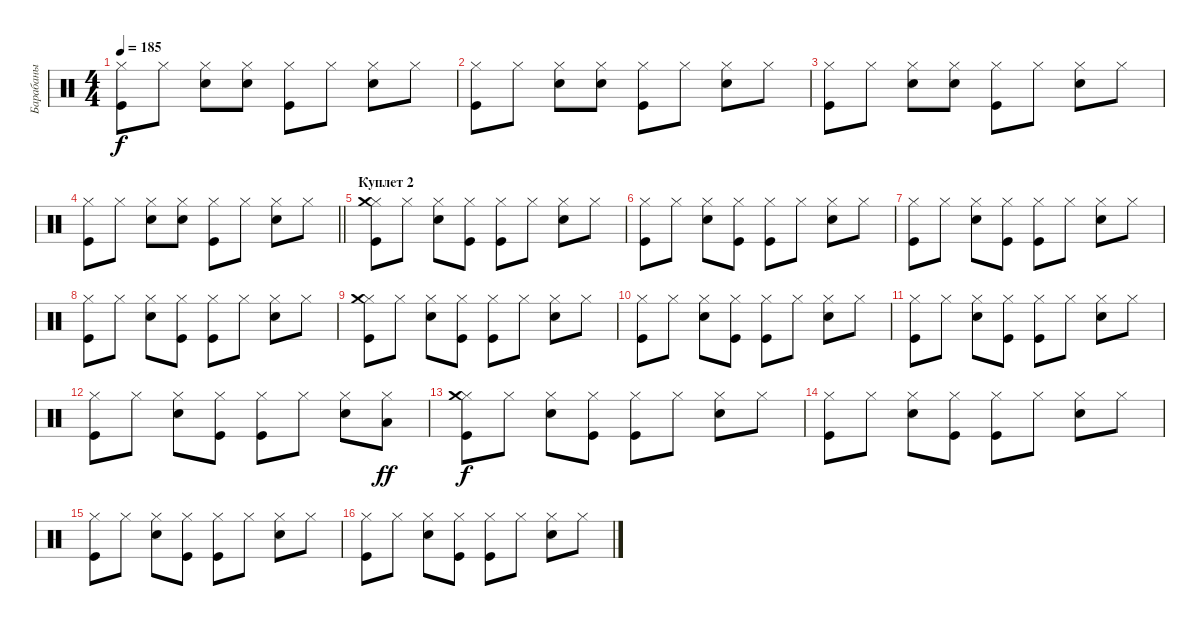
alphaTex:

\track ("Барабаны" "Барабаны") {instrument percussion}
\staff {score}
\articulation defaults
\ts (4 4)
\tempo 185
\clef neutral
\ks c
("Kick (hit)" "Hi-Hat (closed)").8{dy f} "Hi-Hat (closed)".8 ("Snare (hit) 2" "Hi-Hat (closed)").8 ("Snare (hit) 2" "Hi-Hat (closed)").8 ("Kick (hit)" "Hi-Hat (closed)").8 "Hi-Hat (closed)".8 ("Snare (hit) 2" "Hi-Hat (closed)").8 "Hi-Hat (closed)".8 |
("Kick (hit)" "Hi-Hat (closed)").8 "Hi-Hat (closed)".8 ("Snare (hit) 2" "Hi-Hat (closed)").8 ("Snare (hit) 2" "Hi-Hat (closed)").8 ("Kick (hit)" "Hi-Hat (closed)").8 "Hi-Hat (closed)".8 ("Snare (hit) 2" "Hi-Hat (closed)").8 "Hi-Hat (closed)".8 |
("Kick (hit)" "Hi-Hat (closed)").8 "Hi-Hat (closed)".8 ("Snare (hit) 2" "Hi-Hat (closed)").8 ("Snare (hit) 2" "Hi-Hat (closed)").8 ("Kick (hit)" "Hi-Hat (closed)").8 "Hi-Hat (closed)".8 ("Snare (hit) 2" "Hi-Hat (closed)").8 "Hi-Hat (closed)".8 |
\barLineRight lightlight
("Kick (hit)" "Hi-Hat (closed)").8 "Hi-Hat (closed)".8 ("Snare (hit) 2" "Hi-Hat (closed)").8 ("Snare (hit) 2" "Hi-Hat (closed)").8 ("Kick (hit)" "Hi-Hat (closed)").8 "Hi-Hat (closed)".8 ("Snare (hit) 2" "Hi-Hat (closed)").8 "Hi-Hat (closed)".8 |
\section ("" "Куплет 2")
("Kick (hit)" "Hi-Hat (closed)" "Crash medium (hit)").8 "Hi-Hat (closed)".8 ("Snare (hit) 2" "Hi-Hat (closed)").8 ("Kick (hit)" "Hi-Hat (closed)").8 ("Kick (hit)" "Hi-Hat (closed)").8 "Hi-Hat (closed)".8 ("Snare (hit) 2" "Hi-Hat (closed)").8 "Hi-Hat (closed)".8 |
("Kick (hit)" "Hi-Hat (closed)").8 "Hi-Hat (closed)".8 ("Snare (hit) 2" "Hi-Hat (closed)").8 ("Kick (hit)" "Hi-Hat (closed)").8 ("Kick (hit)" "Hi-Hat (closed)").8 "Hi-Hat (closed)".8 ("Snare (hit) 2" "Hi-Hat (closed)").8 "Hi-Hat (closed)".8 |
("Kick (hit)" "Hi-Hat (closed)").8 "Hi-Hat (closed)".8 ("Snare (hit) 2" "Hi-Hat (closed)").8 ("Kick (hit)" "Hi-Hat (closed)").8 ("Kick (hit)" "Hi-Hat (closed)").8 "Hi-Hat (closed)".8 ("Snare (hit) 2" "Hi-Hat (closed)").8 "Hi-Hat (closed)".8 |
("Kick (hit)" "Hi-Hat (closed)").8 "Hi-Hat (closed)".8 ("Snare (hit) 2" "Hi-Hat (closed)").8 ("Kick (hit)" "Hi-Hat (closed)").8 ("Kick (hit)" "Hi-Hat (closed)").8 "Hi-Hat (closed)".8 ("Snare (hit) 2" "Hi-Hat (closed)").8 "Hi-Hat (closed)".8 |
("Kick (hit)" "Hi-Hat (closed)" "Crash medium (hit)").8 "Hi-Hat (closed)".8 ("Snare (hit) 2" "Hi-Hat (closed)").8 ("Kick (hit)" "Hi-Hat (closed)").8 ("Kick (hit)" "Hi-Hat (closed)").8 "Hi-Hat (closed)".8 ("Snare (hit) 2" "Hi-Hat (closed)").8 "Hi-Hat (closed)".8 |
("Kick (hit)" "Hi-Hat (closed)").8 "Hi-Hat (closed)".8 ("Snare (hit) 2" "Hi-Hat (closed)").8 ("Kick (hit)" "Hi-Hat (closed)").8 ("Kick (hit)" "Hi-Hat (closed)").8 "Hi-Hat (closed)".8 ("Snare (hit) 2" "Hi-Hat (closed)").8 "Hi-Hat (closed)".8 |
("Kick (hit)" "Hi-Hat (closed)").8 "Hi-Hat (closed)".8 ("Snare (hit) 2" "Hi-Hat (closed)").8 ("Kick (hit)" "Hi-Hat (closed)").8 ("Kick (hit)" "Hi-Hat (closed)").8 "Hi-Hat (closed)".8 ("Snare (hit) 2" "Hi-Hat (closed)").8 "Hi-Hat (closed)".8 |
("Kick (hit)" "Hi-Hat (closed)").8 "Hi-Hat (closed)".8 ("Snare (hit) 2" "Hi-Hat (closed)").8 ("Kick (hit)" "Hi-Hat (closed)").8 ("Kick (hit)" "Hi-Hat (closed)").8 "Hi-Hat (closed)".8 ("Snare (hit) 2" "Hi-Hat (closed)").8 ("Hi-Hat (closed)" "Low Floor Tom (hit)").8{dy ff} |
("Kick (hit)" "Hi-Hat (closed)" "Crash medium (hit)").8{dy f} "Hi-Hat (closed)".8 ("Snare (hit) 2" "Hi-Hat (closed)").8 ("Kick (hit)" "Hi-Hat (closed)").8 ("Kick (hit)" "Hi-Hat (closed)").8 "Hi-Hat (closed)".8 ("Snare (hit) 2" "Hi-Hat (closed)").8 "Hi-Hat (closed)".8 |
("Kick (hit)" "Hi-Hat (closed)").8 "Hi-Hat (closed)".8 ("Snare (hit) 2" "Hi-Hat (closed)").8 ("Kick (hit)" "Hi-Hat (closed)").8 ("Kick (hit)" "Hi-Hat (closed)").8 "Hi-Hat (closed)".8 ("Snare (hit) 2" "Hi-Hat (closed)").8 "Hi-Hat (closed)".8 |
("Kick (hit)" "Hi-Hat (closed)").8 "Hi-Hat (closed)".8 ("Snare (hit) 2" "Hi-Hat (closed)").8 ("Kick (hit)" "Hi-Hat (closed)").8 ("Kick (hit)" "Hi-Hat (closed)").8 "Hi-Hat (closed)".8 ("Snare (hit) 2" "Hi-Hat (closed)").8 "Hi-Hat (closed)".8 |
("Kick (hit)" "Hi-Hat (closed)").8 "Hi-Hat (closed)".8 ("Snare (hit) 2" "Hi-Hat (closed)").8 ("Kick (hit)" "Hi-Hat (closed)").8 ("Kick (hit)" "Hi-Hat (closed)").8 "Hi-Hat (closed)".8 ("Snare (hit) 2" "Hi-Hat (closed)").8 "Hi-Hat (closed)".8
